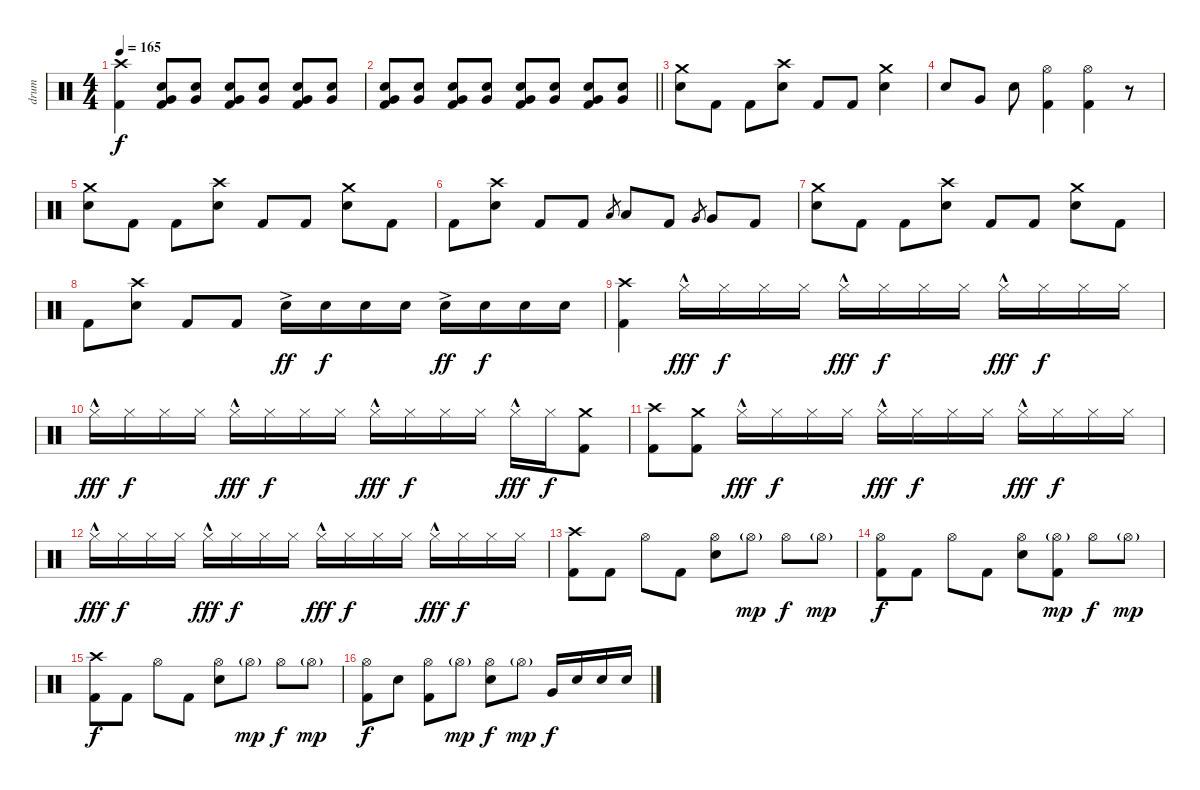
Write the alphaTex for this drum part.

\track ("drum" "drum") {instrument percussion}
\staff {score}
\articulation defaults
\ts (4 4)
\tempo 165
\clef neutral
\ks c
("Crash high (hit)" "Kick (hit) 2").4{dy f} ("Very Low Tom (hit)" "Electric Snare (hit)" "Kick (hit) 2").8 ("Very Low Tom (hit)" "Electric Snare (hit)").8 ("Very Low Tom (hit)" "Electric Snare (hit)" "Kick (hit) 2").8 ("Very Low Tom (hit)" "Electric Snare (hit)").8 ("Very Low Tom (hit)" "Electric Snare (hit)" "Kick (hit) 2").8 ("Very Low Tom (hit)" "Electric Snare (hit)").8 |
\barLineRight lightlight
("Very Low Tom (hit)" "Electric Snare (hit)" "Kick (hit) 2").8 ("Very Low Tom (hit)" "Electric Snare (hit)").8 ("Very Low Tom (hit)" "Electric Snare (hit)" "Kick (hit) 2").8 ("Very Low Tom (hit)" "Electric Snare (hit)").8 ("Very Low Tom (hit)" "Electric Snare (hit)" "Kick (hit) 2").8 ("Very Low Tom (hit)" "Electric Snare (hit)").8 ("Very Low Tom (hit)" "Electric Snare (hit)" "Kick (hit) 2").8 ("Very Low Tom (hit)" "Electric Snare (hit)").8 |
("Crash medium (hit)" "Electric Snare (hit)").8 "Kick (hit) 2".8 "Kick (hit) 2".8 ("Crash high (hit)" "Electric Snare (hit)").8 "Kick (hit) 2".8 "Kick (hit) 2".8 ("Crash medium (hit)" "Electric Snare (hit)").4 |
"Electric Snare (hit)".8 "Very Low Tom (hit)".8 "Electric Snare (hit)".8 ("Hi-Hat (open)" "Kick (hit) 2").4 ("Hi-Hat (open)" "Kick (hit) 2").4 r.8 |
("Crash medium (hit)" "Electric Snare (hit)").8 "Kick (hit) 2".8 "Kick (hit) 2".8 ("Crash high (hit)" "Electric Snare (hit)").8 "Kick (hit) 2".8 "Kick (hit) 2".8 ("Crash medium (hit)" "Electric Snare (hit)").8 "Kick (hit) 2".8 |
"Kick (hit) 2".8 ("Crash high (hit)" "Electric Snare (hit)").8 "Kick (hit) 2".8 "Kick (hit) 2".8 "Low Tom (hit)".8{gr} "Low Tom (hit)".8 "Kick (hit) 2".8 "Very Low Tom (hit)".8{gr} "Very Low Tom (hit)".8 "Kick (hit) 2".8 |
("Crash medium (hit)" "Electric Snare (hit)").8 "Kick (hit) 2".8 "Kick (hit) 2".8 ("Crash high (hit)" "Electric Snare (hit)").8 "Kick (hit) 2".8 "Kick (hit) 2".8 ("Crash medium (hit)" "Electric Snare (hit)").8 "Kick (hit) 2".8 |
"Kick (hit) 2".8 ("Crash high (hit)" "Electric Snare (hit)").8 "Kick (hit) 2".8 "Kick (hit) 2".8 "Electric Snare (hit)"{ac}.16{dy ff} "Electric Snare (hit)".16{dy f} "Electric Snare (hit)".16 "Electric Snare (hit)".16 "Electric Snare (hit)"{ac}.16{dy ff} "Electric Snare (hit)".16{dy f} "Electric Snare (hit)".16 "Electric Snare (hit)".16 |
("Crash high (hit)" "Kick (hit) 2").4 "Hi-Hat (closed)"{hac}.16{dy fff} "Hi-Hat (closed)".16{dy f} "Hi-Hat (closed)".16 "Hi-Hat (closed)".16 "Hi-Hat (closed)"{hac}.16{dy fff} "Hi-Hat (closed)".16{dy f} "Hi-Hat (closed)".16 "Hi-Hat (closed)".16 "Hi-Hat (closed)"{hac}.16{dy fff} "Hi-Hat (closed)".16{dy f} "Hi-Hat (closed)".16 "Hi-Hat (closed)".16 |
"Hi-Hat (closed)"{hac}.16{dy fff} "Hi-Hat (closed)".16{dy f} "Hi-Hat (closed)".16 "Hi-Hat (closed)".16 "Hi-Hat (closed)"{hac}.16{dy fff} "Hi-Hat (closed)".16{dy f} "Hi-Hat (closed)".16 "Hi-Hat (closed)".16 "Hi-Hat (closed)"{hac}.16{dy fff} "Hi-Hat (closed)".16{dy f} "Hi-Hat (closed)".16 "Hi-Hat (closed)".16 "Hi-Hat (closed)"{hac}.16{dy fff} "Hi-Hat (closed)".16{dy f} ("Crash medium (hit)" "Kick (hit) 2").8 |
("Crash high (hit)" "Kick (hit) 2").8 ("Crash medium (hit)" "Kick (hit) 2").8 "Hi-Hat (closed)"{hac}.16{dy fff} "Hi-Hat (closed)".16{dy f} "Hi-Hat (closed)".16 "Hi-Hat (closed)".16 "Hi-Hat (closed)"{hac}.16{dy fff} "Hi-Hat (closed)".16{dy f} "Hi-Hat (closed)".16 "Hi-Hat (closed)".16 "Hi-Hat (closed)"{hac}.16{dy fff} "Hi-Hat (closed)".16{dy f} "Hi-Hat (closed)".16 "Hi-Hat (closed)".16 |
"Hi-Hat (closed)"{hac}.16{dy fff} "Hi-Hat (closed)".16{dy f} "Hi-Hat (closed)".16 "Hi-Hat (closed)".16 "Hi-Hat (closed)"{hac}.16{dy fff} "Hi-Hat (closed)".16{dy f} "Hi-Hat (closed)".16 "Hi-Hat (closed)".16 "Hi-Hat (closed)"{hac}.16{dy fff} "Hi-Hat (closed)".16{dy f} "Hi-Hat (closed)".16 "Hi-Hat (closed)".16 "Hi-Hat (closed)"{hac}.16{dy fff} "Hi-Hat (closed)".16{dy f} "Hi-Hat (closed)".16 "Hi-Hat (closed)".16 |
("Crash high (hit)" "Kick (hit) 2").8 "Kick (hit) 2".8 "Hi-Hat (open)".8 "Kick (hit) 2".8 ("Hi-Hat (open)" "Electric Snare (hit)").8 "Hi-Hat (open)"{g}.8{dy mp} "Hi-Hat (open)".8{dy f} "Hi-Hat (open)"{g}.8{dy mp} |
("Hi-Hat (open)" "Kick (hit) 2").8{dy f} "Kick (hit) 2".8 "Hi-Hat (open)".8 "Kick (hit) 2".8 ("Hi-Hat (open)" "Electric Snare (hit)").8 ("Hi-Hat (open)"{g} "Kick (hit) 2").8{dy mp} "Hi-Hat (open)".8{dy f} "Hi-Hat (open)"{g}.8{dy mp} |
("Crash high (hit)" "Kick (hit) 2").8{dy f} "Kick (hit) 2".8 "Hi-Hat (open)".8 "Kick (hit) 2".8 ("Hi-Hat (open)" "Electric Snare (hit)").8 "Hi-Hat (open)"{g}.8{dy mp} "Hi-Hat (open)".8{dy f} "Hi-Hat (open)"{g}.8{dy mp} |
("Hi-Hat (open)" "Kick (hit) 2").8{dy f} "Electric Snare (hit)".8 ("Hi-Hat (open)" "Kick (hit) 2").8 "Hi-Hat (open)"{g}.8{dy mp} ("Hi-Hat (open)" "Electric Snare (hit)").8{dy f} "Hi-Hat (open)"{g}.8{dy mp} "Very Low Tom (hit)".16{dy f} "Electric Snare (hit)".16 "Electric Snare (hit)".16 "Electric Snare (hit)".16
